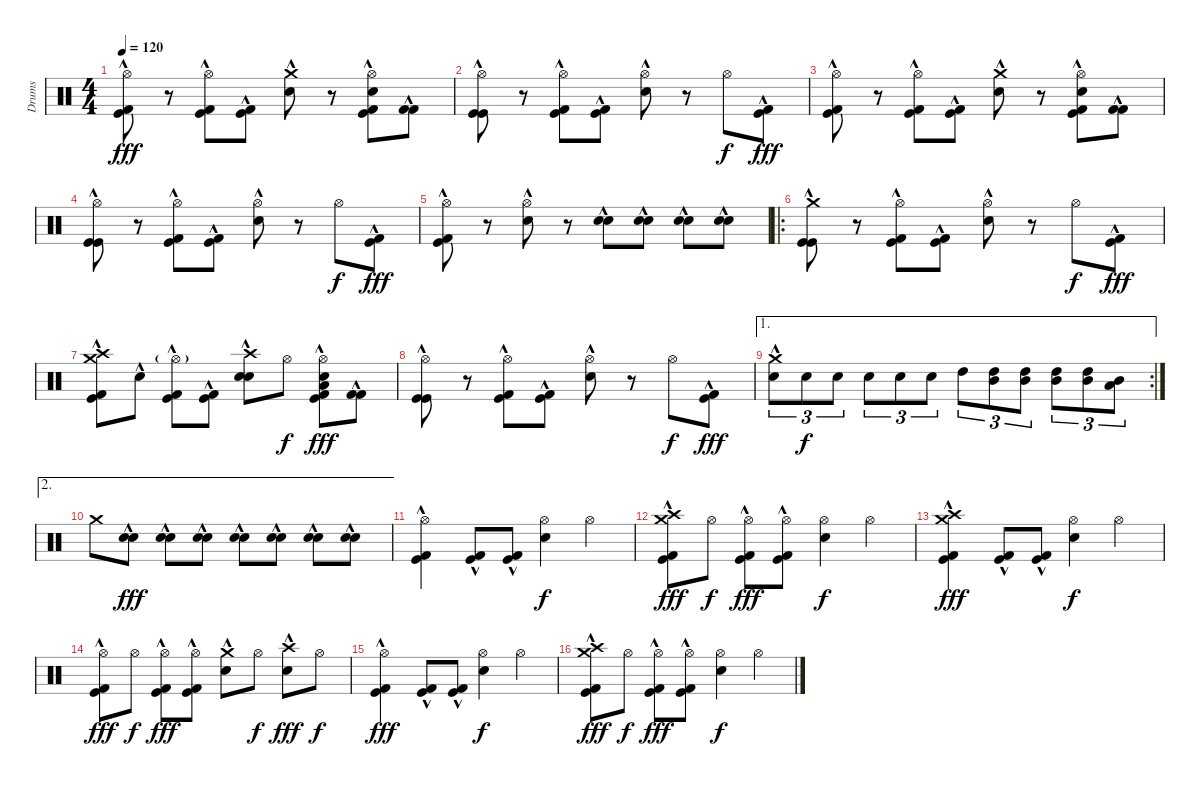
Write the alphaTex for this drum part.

\track ("Drums" "Drums") {instrument percussion}
\staff {score}
\articulation defaults
\ts (4 4)
\tempo 120
\clef neutral
\ks c
("Hi-Hat (open)" "Kick (hit) 2" "Kick (hit)"{hac}).8{dy fff} r.8 ("Hi-Hat (open)" "Kick (hit) 2" "Kick (hit)"{hac}).8 ("Kick (hit) 2" "Kick (hit)"{hac}).8 ("Crash medium (hit)" "Snare (hit) 2"{hac}).8 r.8 ("Hi-Hat (open)" "Snare (hit) 2"{hac} "Kick (hit) 2" "Kick (hit)"{hac}).8 ("Kick (hit) 2" "Kick (hit) 2"{hac}).8 |
("Hi-Hat (open)" "Kick (hit)" "Kick (hit)"{hac}).8 r.8 ("Hi-Hat (open)" "Kick (hit) 2" "Kick (hit)"{hac}).8 ("Kick (hit) 2" "Kick (hit)"{hac}).8 ("Hi-Hat (open)" "Snare (hit) 2"{hac}).8 r.8 "Hi-Hat (open)".8{dy f} ("Kick (hit) 2" "Kick (hit)"{hac}).8{dy fff} |
("Hi-Hat (open)" "Kick (hit) 2" "Kick (hit)"{hac}).8 r.8 ("Hi-Hat (open)" "Kick (hit) 2" "Kick (hit)"{hac}).8 ("Kick (hit) 2" "Kick (hit)"{hac}).8 ("Crash medium (hit)" "Snare (hit) 2"{hac}).8 r.8 ("Hi-Hat (open)" "Snare (hit) 2"{hac} "Kick (hit) 2" "Kick (hit)"{hac}).8 ("Kick (hit) 2" "Kick (hit) 2"{hac}).8 |
("Hi-Hat (open)" "Kick (hit)" "Kick (hit)"{hac}).8 r.8 ("Hi-Hat (open)" "Kick (hit) 2" "Kick (hit)"{hac}).8 ("Kick (hit) 2" "Kick (hit)"{hac}).8 ("Hi-Hat (open)" "Snare (hit) 2"{hac}).8 r.8 "Hi-Hat (open)".8{dy f} ("Kick (hit) 2" "Kick (hit)"{hac}).8{dy fff} |
("Hi-Hat (open)" "Kick (hit) 2"{hac} "Kick (hit)"{hac}).8 r.8 ("Hi-Hat (open)" "Snare (hit) 2"{hac}).8 r.8 ("Snare (hit) 2"{hac} "Snare (hit) 2"{hac}).8 ("Snare (hit) 2"{hac} "Snare (hit) 2"{hac}).8 ("Snare (hit) 2"{hac} "Snare (hit) 2"{hac}).8 ("Snare (hit) 2"{hac} "Snare (hit) 2"{hac}).8 |
\ro
("Crash medium (hit)" "Kick (hit)" "Kick (hit)"{hac}).8 r.8 ("Hi-Hat (open)" "Kick (hit) 2" "Kick (hit)"{hac}).8 ("Kick (hit) 2" "Kick (hit)"{hac}).8 ("Hi-Hat (open)" "Snare (hit) 2"{hac}).8 r.8 "Hi-Hat (open)".8{dy f} ("Kick (hit) 2" "Kick (hit)"{hac}).8{dy fff} |
("Crash high (hit)" "Crash medium (hit)" "Kick (hit) 2" "Kick (hit)"{hac}).8 "Snare (hit) 2"{hac}.8 ("Hi-Hat (open)"{g} "Kick (hit) 2" "Kick (hit)"{hac}).8 ("Kick (hit) 2" "Kick (hit)"{hac}).8 ("Crash high (hit)" "Snare (hit) 2" "Snare (hit) 2"{hac}).8 "Hi-Hat (open)".8{dy f} ("Hi-Hat (open)" "Low Tom (hit)"{hac} "Snare (hit) 2"{hac} "Kick (hit) 2" "Kick (hit)"{hac}).8{dy fff} ("Kick (hit) 2" "Kick (hit) 2"{hac}).8 |
("Hi-Hat (open)" "Kick (hit)" "Kick (hit)"{hac}).8 r.8 ("Hi-Hat (open)" "Kick (hit) 2" "Kick (hit)"{hac}).8 ("Kick (hit) 2" "Kick (hit)"{hac}).8 ("Hi-Hat (open)" "Snare (hit) 2"{hac}).8 r.8 "Hi-Hat (open)".8{dy f} ("Kick (hit) 2" "Kick (hit)"{hac}).8{dy fff} |
\ae 1
\rc 2
("Crash medium (hit)"{hac} "Snare (hit) 2").8{tu (3 2)} "Snare (hit) 2".8{tu (3 2) dy f} "Snare (hit) 2".8{tu (3 2)} "Snare (hit) 2".8{tu (3 2)} "Snare (hit) 2".8{tu (3 2)} "Snare (hit) 2".8{tu (3 2)} "High Tom (hit)".8{tu (3 2)} ("Mid Tom (hit)" "High Tom (hit)").8{tu (3 2)} ("Mid Tom (hit)" "High Tom (hit)").8{tu (3 2)} ("Mid Tom (hit)" "High Tom (hit)").8{tu (3 2)} ("Mid Tom (hit)" "High Tom (hit)").8{tu (3 2)} ("Low Tom (hit)" "Mid Tom (hit)").8{tu (3 2)} |
\ae 2 "Crash medium (hit)".8
("Snare (hit) 2" "Snare (hit) 2"{hac}).8{dy fff} ("Snare (hit) 2" "Snare (hit) 2"{hac}).8 ("Snare (hit) 2" "Snare (hit) 2"{hac}).8 ("Snare (hit) 2" "Snare (hit) 2"{hac}).8 ("Snare (hit) 2" "Snare (hit) 2"{hac}).8 ("Snare (hit) 2" "Snare (hit) 2"{hac}).8 ("Snare (hit) 2" "Snare (hit) 2"{hac}).8 |
("Hi-Hat (open)" "Kick (hit) 2"{hac} "Kick (hit)"{hac}).4 ("Kick (hit) 2"{hac} "Kick (hit)"{hac}).8 ("Kick (hit) 2"{hac} "Kick (hit)"{hac}).8 ("Hi-Hat (open)" "Snare (hit) 2").4{dy f} "Hi-Hat (open)".4 |
("Crash medium (hit)" "Crash high (hit)" "Kick (hit) 2"{hac} "Kick (hit)"{hac}).8{dy fff} "Hi-Hat (open)".8{dy f} ("Hi-Hat (open)" "Kick (hit) 2"{hac} "Kick (hit)"{hac}).8{dy fff} ("Hi-Hat (open)" "Kick (hit) 2"{hac} "Kick (hit)"{hac}).8 ("Hi-Hat (open)" "Snare (hit) 2").4{dy f} "Hi-Hat (open)".4 |
("Crash medium (hit)" "Crash high (hit)" "Kick (hit) 2"{hac} "Kick (hit)"{hac}).4{dy fff} ("Kick (hit) 2"{hac} "Kick (hit)"{hac}).8 ("Kick (hit) 2"{hac} "Kick (hit)"{hac}).8 ("Hi-Hat (open)" "Snare (hit) 2").4{dy f} "Hi-Hat (open)".4 |
("Hi-Hat (open)" "Kick (hit) 2" "Kick (hit)"{hac}).8{dy fff} "Hi-Hat (open)".8{dy f} ("Hi-Hat (open)" "Kick (hit) 2" "Kick (hit)"{hac}).8{dy fff} ("Hi-Hat (open)" "Kick (hit) 2" "Kick (hit)"{hac}).8 ("Crash medium (hit)"{hac} "Snare (hit) 2"{hac}).8 "Hi-Hat (open)".8{dy f} ("Crash high (hit)"{hac} "Snare (hit) 2"{hac}).8{dy fff} "Hi-Hat (open)".8{dy f} |
("Hi-Hat (open)" "Kick (hit) 2"{hac} "Kick (hit)"{hac}).4{dy fff} ("Kick (hit) 2"{hac} "Kick (hit)"{hac}).8 ("Kick (hit) 2"{hac} "Kick (hit)"{hac}).8 ("Hi-Hat (open)" "Snare (hit) 2").4{dy f} "Hi-Hat (open)".4 |
("Crash medium (hit)" "Crash high (hit)" "Kick (hit) 2"{hac} "Kick (hit)"{hac}).8{dy fff} "Hi-Hat (open)".8{dy f} ("Hi-Hat (open)" "Kick (hit) 2"{hac} "Kick (hit)"{hac}).8{dy fff} ("Hi-Hat (open)" "Kick (hit) 2"{hac} "Kick (hit)"{hac}).8 ("Hi-Hat (open)" "Snare (hit) 2").4{dy f} "Hi-Hat (open)".4
